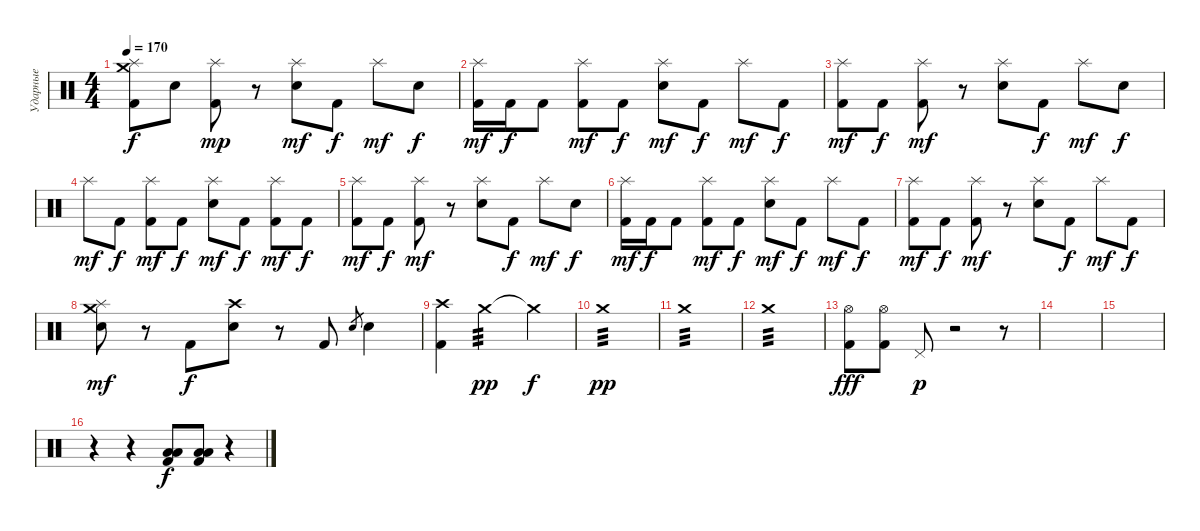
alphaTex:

\track ("Ударные" "Ударные") {instrument percussion}
\staff {score}
\articulation defaults
\ts (4 4)
\tempo 170
\clef neutral
\ks c
("Crash medium (hit)" "Splash (hit)" "Kick (hit) 2").8{dy f} "Electric Snare (hit)".8 ("Splash (hit)" "Kick (hit) 2").8{dy mp} r.8 ("Splash (hit)" "Electric Snare (hit)").8{dy mf} "Kick (hit) 2".8{dy f} "Splash (hit)".8{dy mf} "Electric Snare (hit)".8{dy f} |
("Splash (hit)" "Kick (hit) 2").16{dy mf} "Kick (hit) 2".16{dy f} "Kick (hit) 2".8 ("Splash (hit)" "Kick (hit) 2").8{dy mf} "Kick (hit) 2".8{dy f} ("Splash (hit)" "Electric Snare (hit)").8{dy mf} "Kick (hit) 2".8{dy f} "Splash (hit)".8{dy mf} "Kick (hit) 2".8{dy f} |
("Splash (hit)" "Kick (hit) 2").8{dy mf} "Kick (hit) 2".8{dy f} ("Splash (hit)" "Kick (hit) 2").8{dy mf} r.8 ("Splash (hit)" "Electric Snare (hit)").8 "Kick (hit) 2".8{dy f} "Splash (hit)".8{dy mf} "Electric Snare (hit)".8{dy f} |
"Splash (hit)".8{dy mf} "Kick (hit) 2".8{dy f} ("Splash (hit)" "Kick (hit) 2").8{dy mf} "Kick (hit) 2".8{dy f} ("Splash (hit)" "Electric Snare (hit)").8{dy mf} "Kick (hit) 2".8{dy f} ("Splash (hit)" "Kick (hit) 2").8{dy mf} "Kick (hit) 2".8{dy f} |
("Splash (hit)" "Kick (hit) 2").8{dy mf} "Kick (hit) 2".8{dy f} ("Splash (hit)" "Kick (hit) 2").8{dy mf} r.8 ("Splash (hit)" "Electric Snare (hit)").8 "Kick (hit) 2".8{dy f} "Splash (hit)".8{dy mf} "Electric Snare (hit)".8{dy f} |
("Splash (hit)" "Kick (hit) 2").16{dy mf} "Kick (hit) 2".16{dy f} "Kick (hit) 2".8 ("Splash (hit)" "Kick (hit) 2").8{dy mf} "Kick (hit) 2".8{dy f} ("Splash (hit)" "Electric Snare (hit)").8{dy mf} "Kick (hit) 2".8{dy f} "Splash (hit)".8{dy mf} "Kick (hit) 2".8{dy f} |
("Splash (hit)" "Kick (hit) 2").8{dy mf} "Kick (hit) 2".8{dy f} ("Splash (hit)" "Kick (hit) 2").8{dy mf} r.8 ("Splash (hit)" "Electric Snare (hit)").8 "Kick (hit) 2".8{dy f} "Splash (hit)".8{dy mf} "Kick (hit) 2".8{dy f} |
("Crash medium (hit)" "Splash (hit)" "Electric Snare (hit)").8{dy mf} r.8 "Kick (hit) 2".8{dy f} ("Crash high (hit)" "Electric Snare (hit)").8 r.8 "Kick (hit) 2".8 "Electric Snare (hit)".8{gr} "Electric Snare (hit)".4 |
("Crash high (hit)" "Kick (hit) 2").4 "Crash medium (hit)".2{tp 3 dy pp} "Crash medium (hit)"{t}.4{dy f} |
"Crash medium (hit)".1{tp 3 dy pp} |
"Crash medium (hit)".1{tp 3} |
"Crash medium (hit)".1{tp 3} |
("Hi-Hat (open)" "Kick (hit) 2").8{dy fff} ("Hi-Hat (open)" "Kick (hit) 2").8 "Pedal Hi-Hat (hit)".8{dy p} r.2 r.8 |
|
|
r.4 r.4 ("Low Tom (hit)" "Low Floor Tom (hit)" "Kick (hit) 2").8{dy f} ("Low Tom (hit)" "Low Floor Tom (hit)" "Kick (hit) 2").8 r.4
